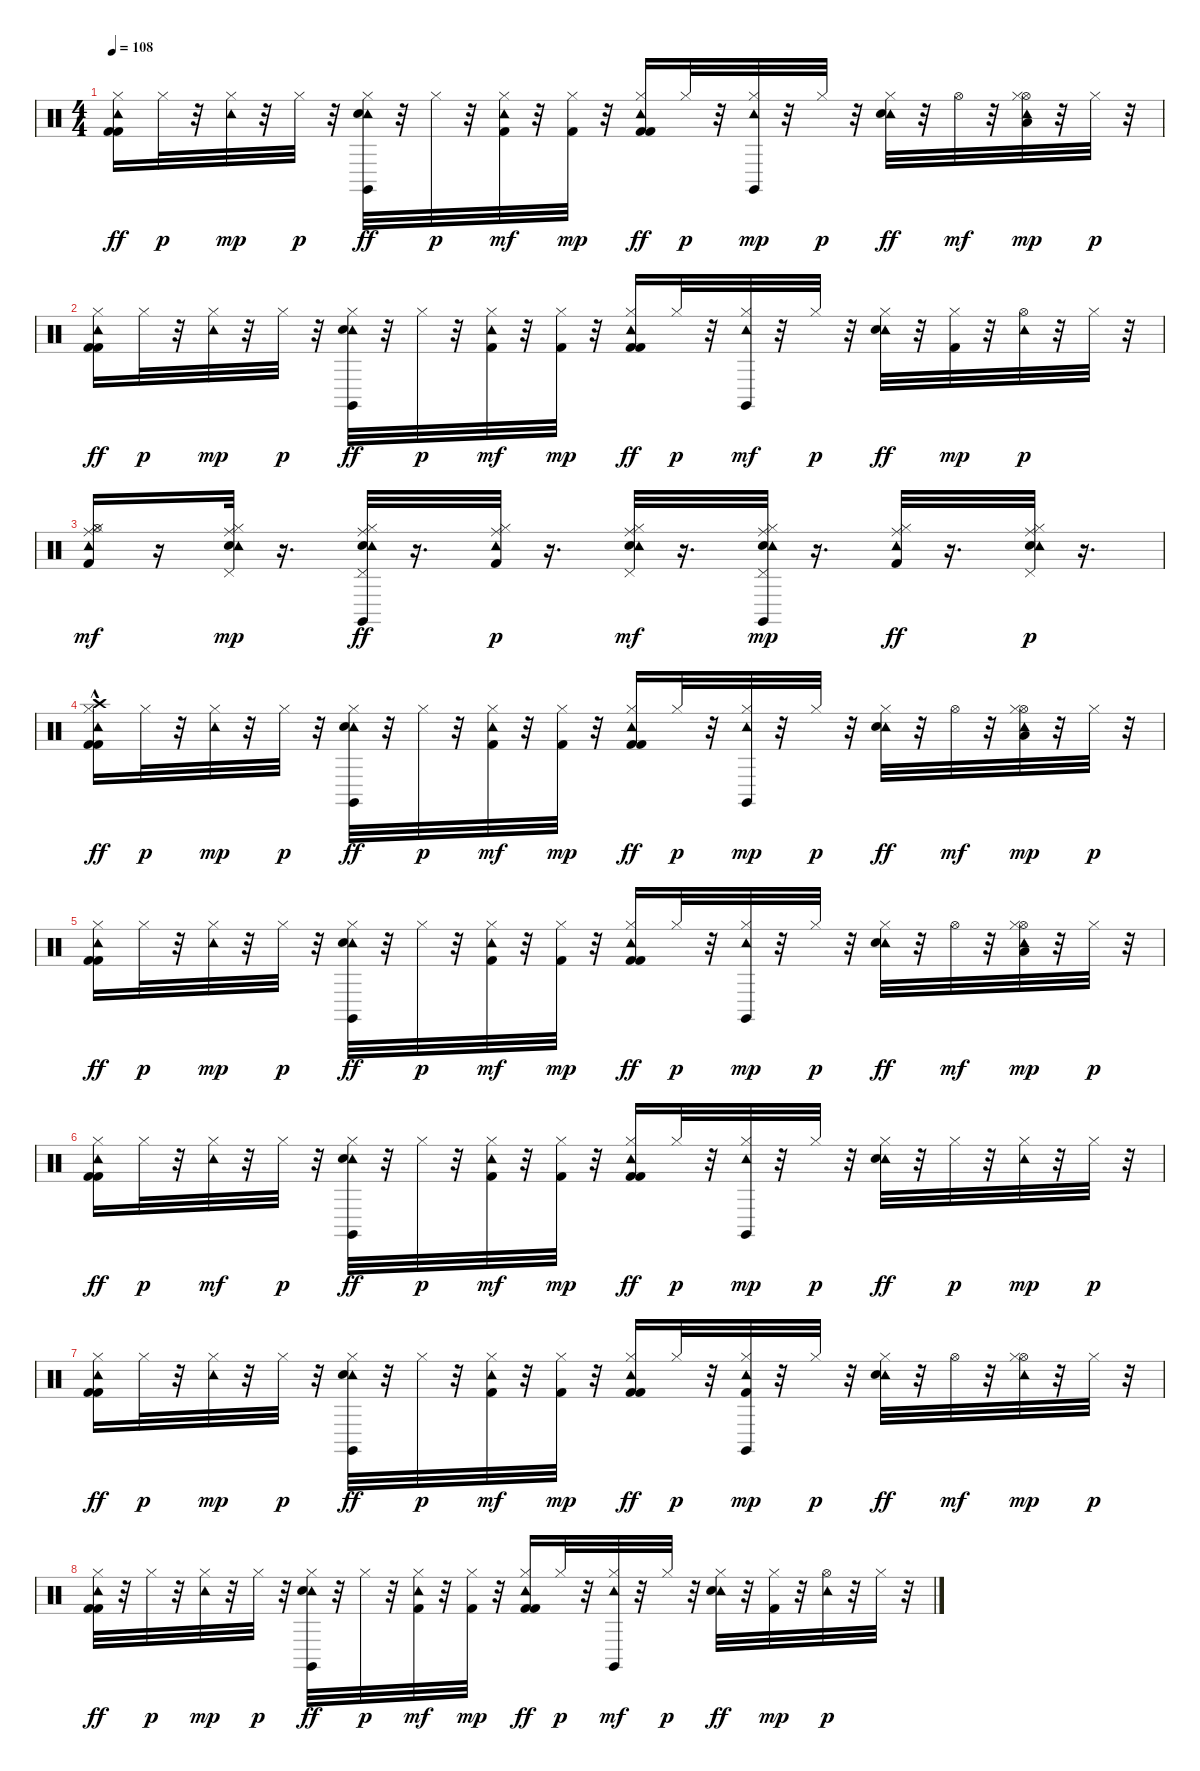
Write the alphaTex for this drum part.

\track "" {instrument percussion}
\staff {score}
\articulation defaults
\ts (4 4)
\tempo 108
\clef neutral
\ks c
("Kick (hit) 2" "Tambourine (hit)" "Hi-Hat (closed)" "Kick (hit) 2").16{dy ff} "Hi-Hat (closed)".32{dy p} r.32 ("Hi-Hat (closed)" "Tambourine (hit)").32{dy mp} r.32 "Hi-Hat (closed)".32{dy p} r.32 ("Tambourine (hit)" "Claves (hit)" "Hi-Hat (closed)" "Snare (hit) 2").32{dy ff} r.32 "Hi-Hat (closed)".32{dy p} r.32 ("Kick (hit) 2" "Tambourine (hit)" "Hi-Hat (closed)").32{dy mf} r.32 ("Hi-Hat (closed)" "Kick (hit) 2").32{dy mp} r.32 ("Kick (hit) 2" "Tambourine (hit)" "Hi-Hat (closed)" "Kick (hit) 2").16{dy ff} "Hi-Hat (closed)".32{dy p} r.32 ("Tambourine (hit)" "Claves (hit)" "Hi-Hat (closed)").32{dy mp} r.32 "Hi-Hat (closed)".32{dy p} r.32 ("Tambourine (hit)" "Hi-Hat (closed)" "Snare (hit) 2").32{dy ff} r.32 "Hi-Hat (open)".32{dy mf} r.32 ("Tambourine (hit)" "Hi-Hat (open)" "Low Tom (hit)" "Hi-Hat (closed)").32{dy mp} r.32 "Hi-Hat (closed)".32{dy p} r.32 |
("Kick (hit) 2" "Tambourine (hit)" "Hi-Hat (closed)" "Kick (hit) 2").16{dy ff} "Hi-Hat (closed)".32{dy p} r.32 ("Tambourine (hit)" "Hi-Hat (closed)").32{dy mp} r.32 "Hi-Hat (closed)".32{dy p} r.32 ("Tambourine (hit)" "Claves (hit)" "Hi-Hat (closed)" "Snare (hit) 2").32{dy ff} r.32 "Hi-Hat (closed)".32{dy p} r.32 ("Kick (hit) 2" "Tambourine (hit)" "Hi-Hat (closed)").32{dy mf} r.32 ("Hi-Hat (closed)" "Kick (hit) 2").32{dy mp} r.32 ("Kick (hit) 2" "Tambourine (hit)" "Hi-Hat (closed)" "Kick (hit) 2").16{dy ff} "Hi-Hat (closed)".32{dy p} r.32 ("Tambourine (hit)" "Claves (hit)" "Hi-Hat (closed)").32{dy mf} r.32 "Hi-Hat (closed)".32{dy p} r.32 ("Tambourine (hit)" "Hi-Hat (closed)" "Snare (hit) 2").32{dy ff} r.32 ("Hi-Hat (closed)" "Kick (hit) 2").32{dy mp} r.32 ("Tambourine (hit)" "Hi-Hat (open)").32{dy p} r.32 "Hi-Hat (closed)".32 r.32 |
("Ride (middle)" "Kick (hit) 2" "Hi-Hat (open)" "Tambourine (hit)" "Hi-Hat (closed)").16{dy mf} r.16 ("Pedal Hi-Hat (hit)" "Ride (middle)" "Snare (hit) 2" "Hi-Hat (closed)" "Tambourine (hit)").32{dy mp} r.16{d} ("Pedal Hi-Hat (hit)" "Ride (middle)" "Snare (hit) 2" "Hi-Hat (closed)" "Tambourine (hit)" "Claves (hit)").32{dy ff} r.16{d} ("Ride (middle)" "Kick (hit) 2" "Hi-Hat (closed)" "Tambourine (hit)").32{dy p} r.16{d} ("Pedal Hi-Hat (hit)" "Ride (middle)" "Snare (hit) 2" "Hi-Hat (closed)" "Tambourine (hit)").32{dy mf} r.16{d} ("Pedal Hi-Hat (hit)" "Ride (middle)" "Snare (hit) 2" "Tambourine (hit)" "Hi-Hat (closed)" "Claves (hit)").32{dy mp} r.16{d} ("Ride (middle)" "Kick (hit) 2" "Hi-Hat (closed)" "Tambourine (hit)").32{dy ff} r.16{d} ("Pedal Hi-Hat (hit)" "Ride (middle)" "Snare (hit) 2" "Tambourine (hit)" "Hi-Hat (closed)").32{dy p} r.16{d} |
("Crash high (hit)"{hac} "Tambourine (hit)" "Kick (hit) 2" "Hi-Hat (closed)" "Kick (hit) 2").16{dy ff} "Hi-Hat (closed)".32{dy p} r.32 ("Tambourine (hit)" "Hi-Hat (closed)").32{dy mp} r.32 "Hi-Hat (closed)".32{dy p} r.32 ("Tambourine (hit)" "Claves (hit)" "Hi-Hat (closed)" "Snare (hit) 2").32{dy ff} r.32 "Hi-Hat (closed)".32{dy p} r.32 ("Kick (hit) 2" "Tambourine (hit)" "Hi-Hat (closed)").32{dy mf} r.32 ("Hi-Hat (closed)" "Kick (hit) 2").32{dy mp} r.32 ("Tambourine (hit)" "Kick (hit) 2" "Hi-Hat (closed)" "Kick (hit) 2").16{dy ff} "Hi-Hat (closed)".32{dy p} r.32 ("Tambourine (hit)" "Claves (hit)" "Hi-Hat (closed)").32{dy mp} r.32 "Hi-Hat (closed)".32{dy p} r.32 ("Tambourine (hit)" "Hi-Hat (closed)" "Snare (hit) 2").32{dy ff} r.32 "Hi-Hat (open)".32{dy mf} r.32 ("Tambourine (hit)" "Hi-Hat (open)" "Low Tom (hit)" "Hi-Hat (closed)").32{dy mp} r.32 "Hi-Hat (closed)".32{dy p} r.32 |
("Tambourine (hit)" "Kick (hit) 2" "Hi-Hat (closed)" "Kick (hit) 2").16{dy ff} "Hi-Hat (closed)".32{dy p} r.32 ("Tambourine (hit)" "Hi-Hat (closed)").32{dy mp} r.32 "Hi-Hat (closed)".32{dy p} r.32 ("Tambourine (hit)" "Claves (hit)" "Hi-Hat (closed)" "Snare (hit) 2").32{dy ff} r.32 "Hi-Hat (closed)".32{dy p} r.32 ("Kick (hit) 2" "Tambourine (hit)" "Hi-Hat (closed)").32{dy mf} r.32 ("Hi-Hat (closed)" "Kick (hit) 2").32{dy mp} r.32 ("Tambourine (hit)" "Kick (hit) 2" "Hi-Hat (closed)" "Kick (hit) 2").16{dy ff} "Hi-Hat (closed)".32{dy p} r.32 ("Tambourine (hit)" "Claves (hit)" "Hi-Hat (closed)").32{dy mp} r.32 "Hi-Hat (closed)".32{dy p} r.32 ("Tambourine (hit)" "Hi-Hat (closed)" "Snare (hit) 2").32{dy ff} r.32 "Hi-Hat (open)".32{dy mf} r.32 ("Tambourine (hit)" "Hi-Hat (open)" "Low Tom (hit)" "Hi-Hat (closed)").32{dy mp} r.32 "Hi-Hat (closed)".32{dy p} r.32 |
("Tambourine (hit)" "Kick (hit) 2" "Hi-Hat (closed)" "Kick (hit) 2").16{dy ff} "Hi-Hat (closed)".32{dy p} r.32 ("Tambourine (hit)" "Hi-Hat (closed)").32{dy mf} r.32 "Hi-Hat (closed)".32{dy p} r.32 ("Tambourine (hit)" "Claves (hit)" "Hi-Hat (closed)" "Snare (hit) 2").32{dy ff} r.32 "Hi-Hat (closed)".32{dy p} r.32 ("Tambourine (hit)" "Kick (hit) 2" "Hi-Hat (closed)").32{dy mf} r.32 ("Hi-Hat (closed)" "Kick (hit) 2").32{dy mp} r.32 ("Kick (hit) 2" "Tambourine (hit)" "Hi-Hat (closed)" "Kick (hit) 2").16{dy ff} "Hi-Hat (closed)".32{dy p} r.32 ("Tambourine (hit)" "Claves (hit)" "Hi-Hat (closed)").32{dy mp} r.32 "Hi-Hat (closed)".32{dy p} r.32 ("Tambourine (hit)" "Hi-Hat (closed)" "Snare (hit) 2").32{dy ff} r.32 "Hi-Hat (closed)".32{dy p} r.32 ("Tambourine (hit)" "Hi-Hat (closed)").32{dy mp} r.32 "Hi-Hat (closed)".32{dy p} r.32 |
("Tambourine (hit)" "Kick (hit) 2" "Hi-Hat (closed)" "Kick (hit) 2").16{dy ff} "Hi-Hat (closed)".32{dy p} r.32 ("Hi-Hat (closed)" "Tambourine (hit)").32{dy mp} r.32 "Hi-Hat (closed)".32{dy p} r.32 ("Tambourine (hit)" "Claves (hit)" "Hi-Hat (closed)" "Snare (hit) 2").32{dy ff} r.32 "Hi-Hat (closed)".32{dy p} r.32 ("Tambourine (hit)" "Kick (hit) 2" "Hi-Hat (closed)").32{dy mf} r.32 ("Hi-Hat (closed)" "Kick (hit) 2").32{dy mp} r.32 ("Tambourine (hit)" "Kick (hit) 2" "Hi-Hat (closed)" "Kick (hit) 2").16{dy ff} "Hi-Hat (closed)".32{dy p} r.32 ("Tambourine (hit)" "Kick (hit) 2" "Claves (hit)" "Hi-Hat (closed)").32{dy mp} r.32 "Hi-Hat (closed)".32{dy p} r.32 ("Tambourine (hit)" "Hi-Hat (closed)" "Snare (hit) 2").32{dy ff} r.32 "Hi-Hat (open)".32{dy mf} r.32 ("Tambourine (hit)" "Hi-Hat (open)" "Hi-Hat (closed)").32{dy mp} r.32 "Hi-Hat (closed)".32{dy p} r.32 |
("Tambourine (hit)" "Kick (hit) 2" "Hi-Hat (closed)" "Kick (hit) 2").32{dy ff} r.32 "Hi-Hat (closed)".32{dy p} r.32 ("Tambourine (hit)" "Hi-Hat (closed)").32{dy mp} r.32 "Hi-Hat (closed)".32{dy p} r.32 ("Tambourine (hit)" "Claves (hit)" "Hi-Hat (closed)" "Snare (hit) 2").32{dy ff} r.32 "Hi-Hat (closed)".32{dy p} r.32 ("Kick (hit) 2" "Tambourine (hit)" "Hi-Hat (closed)").32{dy mf} r.32 ("Hi-Hat (closed)" "Kick (hit) 2").32{dy mp} r.32 ("Tambourine (hit)" "Kick (hit) 2" "Hi-Hat (closed)" "Kick (hit) 2").16{dy ff} "Hi-Hat (closed)".32{dy p} r.32 ("Tambourine (hit)" "Claves (hit)" "Hi-Hat (closed)").32{dy mf} r.32 "Hi-Hat (closed)".32{dy p} r.32 ("Tambourine (hit)" "Hi-Hat (closed)" "Snare (hit) 2").32{dy ff} r.32 ("Hi-Hat (closed)" "Kick (hit) 2").32{dy mp} r.32 ("Tambourine (hit)" "Hi-Hat (open)").32{dy p} r.32 "Hi-Hat (closed)".32 r.32
